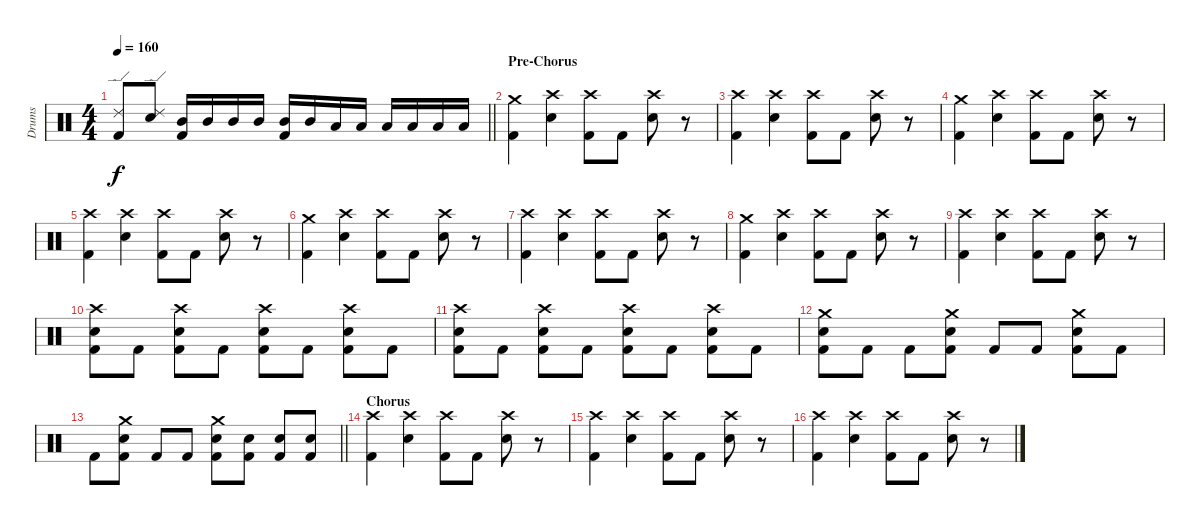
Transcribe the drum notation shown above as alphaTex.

\track ("Drums" "Drums") {instrument percussion}
\staff {score}
\articulation defaults
\ts (4 4)
\tempo 160
\clef neutral
\barLineRight lightlight
\ks c
("Ride (edge) 2" "Kick (hit) 2").8{dy f} ("Ride (edge) 2" "Electric Snare (hit)").8 ("Mid Tom (hit)" "Kick (hit) 2").16 "Mid Tom (hit)".16 "Mid Tom (hit)".16 "Mid Tom (hit)".16 ("Mid Tom (hit)" "Kick (hit) 2").16 "Mid Tom (hit)".16 "Low Tom (hit)".16 "Low Tom (hit)".16 "Low Tom (hit)".16 "Low Tom (hit)".16 "Low Tom (hit)".16 "Low Tom (hit)".16 |
\section ("" "Pre-Chorus")
("Crash medium (hit)" "Kick (hit) 2").4 ("Crash high (hit)" "Electric Snare (hit)").4 ("Crash high (hit)" "Kick (hit) 2").8 "Kick (hit) 2".8 ("Crash high (hit)" "Electric Snare (hit)").8 r.8 |
("Crash high (hit)" "Kick (hit) 2").4 ("Crash high (hit)" "Electric Snare (hit)").4 ("Crash high (hit)" "Kick (hit) 2").8 "Kick (hit) 2".8 ("Crash high (hit)" "Electric Snare (hit)").8 r.8 |
("Crash medium (hit)" "Kick (hit) 2").4 ("Crash high (hit)" "Electric Snare (hit)").4 ("Crash high (hit)" "Kick (hit) 2").8 "Kick (hit) 2".8 ("Crash high (hit)" "Electric Snare (hit)").8 r.8 |
("Crash high (hit)" "Kick (hit) 2").4 ("Crash high (hit)" "Electric Snare (hit)").4 ("Crash high (hit)" "Kick (hit) 2").8 "Kick (hit) 2".8 ("Crash high (hit)" "Electric Snare (hit)").8 r.8 |
("Crash medium (hit)" "Kick (hit) 2").4 ("Crash high (hit)" "Electric Snare (hit)").4 ("Crash high (hit)" "Kick (hit) 2").8 "Kick (hit) 2".8 ("Crash high (hit)" "Electric Snare (hit)").8 r.8 |
("Crash high (hit)" "Kick (hit) 2").4 ("Crash high (hit)" "Electric Snare (hit)").4 ("Crash high (hit)" "Kick (hit) 2").8 "Kick (hit) 2".8 ("Crash high (hit)" "Electric Snare (hit)").8 r.8 |
("Crash medium (hit)" "Kick (hit) 2").4 ("Crash high (hit)" "Electric Snare (hit)").4 ("Crash high (hit)" "Kick (hit) 2").8 "Kick (hit) 2".8 ("Crash high (hit)" "Electric Snare (hit)").8 r.8 |
("Crash high (hit)" "Kick (hit) 2").4 ("Crash high (hit)" "Electric Snare (hit)").4 ("Crash high (hit)" "Kick (hit) 2").8 "Kick (hit) 2".8 ("Crash high (hit)" "Electric Snare (hit)").8 r.8 |
("Crash high (hit)" "Electric Snare (hit)" "Kick (hit) 2").8 "Kick (hit) 2".8 ("Crash high (hit)" "Electric Snare (hit)" "Kick (hit) 2").8 "Kick (hit) 2".8 ("Crash high (hit)" "Electric Snare (hit)" "Kick (hit) 2").8 "Kick (hit) 2".8 ("Crash high (hit)" "Electric Snare (hit)" "Kick (hit) 2").8 "Kick (hit) 2".8 |
("Crash high (hit)" "Electric Snare (hit)" "Kick (hit) 2").8 "Kick (hit) 2".8 ("Crash high (hit)" "Electric Snare (hit)" "Kick (hit) 2").8 "Kick (hit) 2".8 ("Crash high (hit)" "Electric Snare (hit)" "Kick (hit) 2").8 "Kick (hit) 2".8 ("Crash high (hit)" "Electric Snare (hit)" "Kick (hit) 2").8 "Kick (hit) 2".8 |
("Crash medium (hit)" "Electric Snare (hit)" "Kick (hit) 2").8 "Kick (hit) 2".8 "Kick (hit) 2".8 ("Crash medium (hit)" "Electric Snare (hit)" "Kick (hit) 2").8 "Kick (hit) 2".8 "Kick (hit) 2".8 ("Crash medium (hit)" "Electric Snare (hit)" "Kick (hit) 2").8 "Kick (hit) 2".8 |
\barLineRight lightlight "Kick (hit) 2".8
("Crash medium (hit)" "Electric Snare (hit)" "Kick (hit) 2").8 "Kick (hit) 2".8 "Kick (hit) 2".8 ("Crash medium (hit)" "Electric Snare (hit)" "Kick (hit) 2").8 ("Electric Snare (hit)" "Kick (hit) 2").8 ("Electric Snare (hit)" "Kick (hit) 2").8 ("Electric Snare (hit)" "Kick (hit) 2").8 |
\section ("" "Chorus")
("Crash high (hit)" "Kick (hit) 2").4 ("Crash high (hit)" "Electric Snare (hit)").4 ("Crash high (hit)" "Kick (hit) 2").8 "Kick (hit) 2".8 ("Crash high (hit)" "Electric Snare (hit)").8 r.8 |
("Crash high (hit)" "Kick (hit) 2").4 ("Crash high (hit)" "Electric Snare (hit)").4 ("Crash high (hit)" "Kick (hit) 2").8 "Kick (hit) 2".8 ("Crash high (hit)" "Electric Snare (hit)").8 r.8 |
("Crash high (hit)" "Kick (hit) 2").4 ("Crash high (hit)" "Electric Snare (hit)").4 ("Crash high (hit)" "Kick (hit) 2").8 "Kick (hit) 2".8 ("Crash high (hit)" "Electric Snare (hit)").8 r.8
